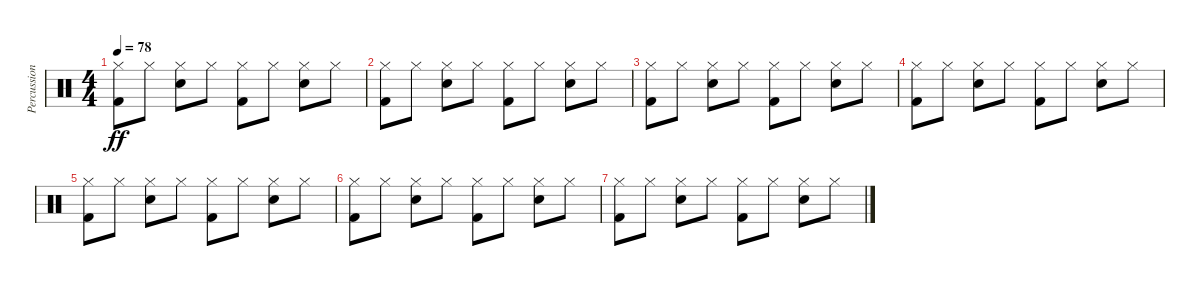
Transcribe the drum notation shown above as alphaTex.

\track ("Percussion" "Percussion") {instrument percussion}
\staff {score}
\articulation defaults
\ts (4 4)
\tempo 78
\clef neutral
\ks c
("Kick (hit) 2" "Hi-Hat (closed)").8{dy ff} "Hi-Hat (closed)".8 ("Snare (hit) 2" "Hi-Hat (closed)").8 "Hi-Hat (closed)".8 ("Kick (hit) 2" "Hi-Hat (closed)").8 "Hi-Hat (closed)".8 ("Snare (hit) 2" "Hi-Hat (closed)").8 "Hi-Hat (closed)".8 |
("Kick (hit) 2" "Hi-Hat (closed)").8 "Hi-Hat (closed)".8 ("Snare (hit) 2" "Hi-Hat (closed)").8 "Hi-Hat (closed)".8 ("Kick (hit) 2" "Hi-Hat (closed)").8 "Hi-Hat (closed)".8 ("Snare (hit) 2" "Hi-Hat (closed)").8 "Hi-Hat (closed)".8 |
("Kick (hit) 2" "Hi-Hat (closed)").8 "Hi-Hat (closed)".8 ("Snare (hit) 2" "Hi-Hat (closed)").8 "Hi-Hat (closed)".8 ("Kick (hit) 2" "Hi-Hat (closed)").8 "Hi-Hat (closed)".8 ("Snare (hit) 2" "Hi-Hat (closed)").8 "Hi-Hat (closed)".8 |
("Kick (hit) 2" "Hi-Hat (closed)").8 "Hi-Hat (closed)".8 ("Snare (hit) 2" "Hi-Hat (closed)").8 "Hi-Hat (closed)".8 ("Kick (hit) 2" "Hi-Hat (closed)").8 "Hi-Hat (closed)".8 ("Snare (hit) 2" "Hi-Hat (closed)").8 "Hi-Hat (closed)".8 |
("Kick (hit) 2" "Hi-Hat (closed)").8 "Hi-Hat (closed)".8 ("Snare (hit) 2" "Hi-Hat (closed)").8 "Hi-Hat (closed)".8 ("Kick (hit) 2" "Hi-Hat (closed)").8 "Hi-Hat (closed)".8 ("Snare (hit) 2" "Hi-Hat (closed)").8 "Hi-Hat (closed)".8 |
("Kick (hit) 2" "Hi-Hat (closed)").8 "Hi-Hat (closed)".8 ("Snare (hit) 2" "Hi-Hat (closed)").8 "Hi-Hat (closed)".8 ("Kick (hit) 2" "Hi-Hat (closed)").8 "Hi-Hat (closed)".8 ("Snare (hit) 2" "Hi-Hat (closed)").8 "Hi-Hat (closed)".8 |
("Kick (hit) 2" "Hi-Hat (closed)").8 "Hi-Hat (closed)".8 ("Snare (hit) 2" "Hi-Hat (closed)").8 "Hi-Hat (closed)".8 ("Kick (hit) 2" "Hi-Hat (closed)").8 "Hi-Hat (closed)".8 ("Snare (hit) 2" "Hi-Hat (closed)").8 "Hi-Hat (closed)".8
